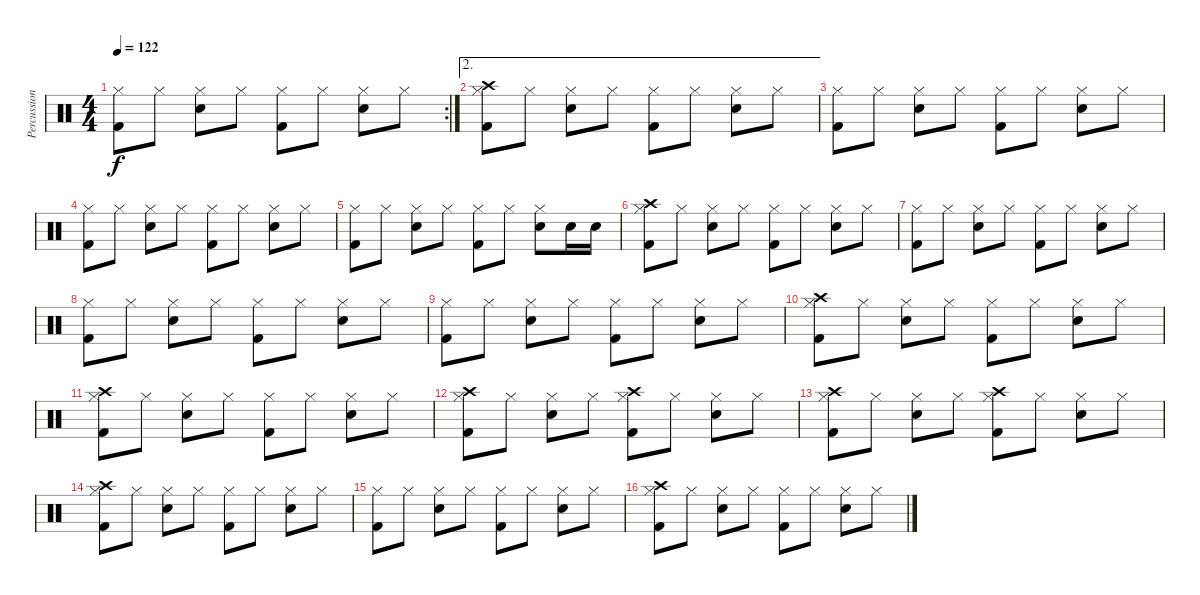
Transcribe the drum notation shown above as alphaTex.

\track ("Percussion" "Percussion") {instrument percussion}
\staff {score}
\articulation defaults
\rc 2
\ts (4 4)
\tempo 122
\clef neutral
\ks c
("Hi-Hat (closed)" "Kick (hit) 2").8{dy f} "Hi-Hat (closed)".8 ("Hi-Hat (closed)" "Snare (hit) 2").8 "Hi-Hat (closed)".8 ("Hi-Hat (closed)" "Kick (hit) 2").8 "Hi-Hat (closed)".8 ("Hi-Hat (closed)" "Snare (hit) 2").8 "Hi-Hat (closed)".8 |
\ae 2
("Crash high (hit)" "Hi-Hat (closed)" "Kick (hit) 2").8 "Hi-Hat (closed)".8 ("Hi-Hat (closed)" "Snare (hit) 2").8 "Hi-Hat (closed)".8 ("Hi-Hat (closed)" "Kick (hit) 2").8 "Hi-Hat (closed)".8 ("Hi-Hat (closed)" "Snare (hit) 2").8 "Hi-Hat (closed)".8 |
("Hi-Hat (closed)" "Kick (hit) 2").8 "Hi-Hat (closed)".8 ("Hi-Hat (closed)" "Snare (hit) 2").8 "Hi-Hat (closed)".8 ("Hi-Hat (closed)" "Kick (hit) 2").8 "Hi-Hat (closed)".8 ("Hi-Hat (closed)" "Snare (hit) 2").8 "Hi-Hat (closed)".8 |
("Hi-Hat (closed)" "Kick (hit) 2").8 "Hi-Hat (closed)".8 ("Hi-Hat (closed)" "Snare (hit) 2").8 "Hi-Hat (closed)".8 ("Hi-Hat (closed)" "Kick (hit) 2").8 "Hi-Hat (closed)".8 ("Hi-Hat (closed)" "Snare (hit) 2").8 "Hi-Hat (closed)".8 |
("Hi-Hat (closed)" "Kick (hit) 2").8 "Hi-Hat (closed)".8 ("Hi-Hat (closed)" "Snare (hit) 2").8 "Hi-Hat (closed)".8 ("Hi-Hat (closed)" "Kick (hit) 2").8 "Hi-Hat (closed)".8 ("Hi-Hat (closed)" "Snare (hit) 2").8 "Snare (hit) 2".16 "Snare (hit) 2".16 |
("Crash high (hit)" "Hi-Hat (closed)" "Kick (hit) 2").8 "Hi-Hat (closed)".8 ("Hi-Hat (closed)" "Snare (hit) 2").8 "Hi-Hat (closed)".8 ("Hi-Hat (closed)" "Kick (hit) 2").8 "Hi-Hat (closed)".8 ("Hi-Hat (closed)" "Snare (hit) 2").8 "Hi-Hat (closed)".8 |
("Hi-Hat (closed)" "Kick (hit) 2").8 "Hi-Hat (closed)".8 ("Hi-Hat (closed)" "Snare (hit) 2").8 "Hi-Hat (closed)".8 ("Hi-Hat (closed)" "Kick (hit) 2").8 "Hi-Hat (closed)".8 ("Hi-Hat (closed)" "Snare (hit) 2").8 "Hi-Hat (closed)".8 |
("Hi-Hat (closed)" "Kick (hit) 2").8 "Hi-Hat (closed)".8 ("Hi-Hat (closed)" "Snare (hit) 2").8 "Hi-Hat (closed)".8 ("Hi-Hat (closed)" "Kick (hit) 2").8 "Hi-Hat (closed)".8 ("Hi-Hat (closed)" "Snare (hit) 2").8 "Hi-Hat (closed)".8 |
("Hi-Hat (closed)" "Kick (hit) 2").8 "Hi-Hat (closed)".8 ("Hi-Hat (closed)" "Snare (hit) 2").8 "Hi-Hat (closed)".8 ("Hi-Hat (closed)" "Kick (hit) 2").8 "Hi-Hat (closed)".8 ("Hi-Hat (closed)" "Snare (hit) 2").8 "Hi-Hat (closed)".8 |
("Crash high (hit)" "Hi-Hat (closed)" "Kick (hit) 2").8 "Hi-Hat (closed)".8 ("Hi-Hat (closed)" "Snare (hit) 2").8 "Hi-Hat (closed)".8 ("Hi-Hat (closed)" "Kick (hit) 2").8 "Hi-Hat (closed)".8 ("Hi-Hat (closed)" "Snare (hit) 2").8 "Hi-Hat (closed)".8 |
("Hi-Hat (closed)" "Crash high (hit)" "Kick (hit) 2").8 "Hi-Hat (closed)".8 ("Hi-Hat (closed)" "Snare (hit) 2").8 "Hi-Hat (closed)".8 ("Hi-Hat (closed)" "Kick (hit) 2").8 "Hi-Hat (closed)".8 ("Hi-Hat (closed)" "Snare (hit) 2").8 "Hi-Hat (closed)".8 |
("Hi-Hat (closed)" "Crash high (hit)" "Kick (hit) 2").8 "Hi-Hat (closed)".8 ("Hi-Hat (closed)" "Snare (hit) 2").8 "Hi-Hat (closed)".8 ("Hi-Hat (closed)" "Crash high (hit)" "Kick (hit) 2").8 "Hi-Hat (closed)".8 ("Hi-Hat (closed)" "Snare (hit) 2").8 "Hi-Hat (closed)".8 |
("Hi-Hat (closed)" "Crash high (hit)" "Kick (hit) 2").8 "Hi-Hat (closed)".8 ("Hi-Hat (closed)" "Snare (hit) 2").8 "Hi-Hat (closed)".8 ("Hi-Hat (closed)" "Crash high (hit)" "Kick (hit) 2").8 "Hi-Hat (closed)".8 ("Hi-Hat (closed)" "Snare (hit) 2").8 "Hi-Hat (closed)".8 |
("Crash high (hit)" "Hi-Hat (closed)" "Kick (hit) 2").8 "Hi-Hat (closed)".8 ("Hi-Hat (closed)" "Snare (hit) 2").8 "Hi-Hat (closed)".8 ("Hi-Hat (closed)" "Kick (hit) 2").8 "Hi-Hat (closed)".8 ("Hi-Hat (closed)" "Snare (hit) 2").8 "Hi-Hat (closed)".8 |
("Hi-Hat (closed)" "Kick (hit) 2").8 "Hi-Hat (closed)".8 ("Hi-Hat (closed)" "Snare (hit) 2").8 "Hi-Hat (closed)".8 ("Hi-Hat (closed)" "Kick (hit) 2").8 "Hi-Hat (closed)".8 ("Hi-Hat (closed)" "Snare (hit) 2").8 "Hi-Hat (closed)".8 |
("Hi-Hat (closed)" "Crash high (hit)" "Kick (hit) 2").8 "Hi-Hat (closed)".8 ("Hi-Hat (closed)" "Snare (hit) 2").8 "Hi-Hat (closed)".8 ("Hi-Hat (closed)" "Kick (hit) 2").8 "Hi-Hat (closed)".8 ("Hi-Hat (closed)" "Snare (hit) 2").8 "Hi-Hat (closed)".8
